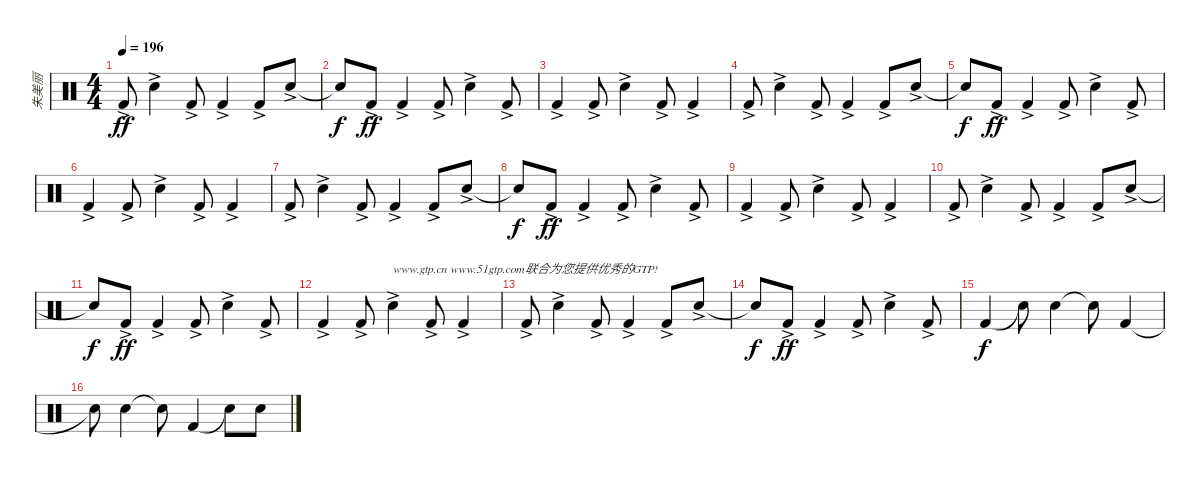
\track ("朱美丽" "朱美丽") {instrument percussion}
\staff {score}
\articulation defaults
\ts (4 4)
\tempo 196
\clef neutral
\ks c "Kick (hit) 2"{ac}.8{dy ff} "Electric Snare (hit)"{ac}.4 "Kick (hit) 2"{ac}.8 "Kick (hit) 2"{ac}.4 "Kick (hit) 2"{ac}.8 "Electric Snare (hit)"{ac}.8
|
"Snare (hit)"{t}.8{dy f} "Kick (hit) 2"{ac}.8{dy ff} "Kick (hit) 2"{ac}.4 "Kick (hit) 2"{ac}.8 "Electric Snare (hit)"{ac}.4 "Kick (hit) 2"{ac}.8 |
"Kick (hit) 2"{ac}.4 "Kick (hit) 2"{ac}.8 "Electric Snare (hit)"{ac}.4 "Kick (hit) 2"{ac}.8 "Kick (hit) 2"{ac}.4 |
"Kick (hit) 2"{ac}.8 "Electric Snare (hit)"{ac}.4 "Kick (hit) 2"{ac}.8 "Kick (hit) 2"{ac}.4 "Kick (hit) 2"{ac}.8 "Electric Snare (hit)"{ac}.8 |
"Snare (hit)"{t}.8{dy f} "Kick (hit) 2"{ac}.8{dy ff} "Kick (hit) 2"{ac}.4 "Kick (hit) 2"{ac}.8 "Electric Snare (hit)"{ac}.4 "Kick (hit) 2"{ac}.8 |
"Kick (hit) 2"{ac}.4 "Kick (hit) 2"{ac}.8 "Electric Snare (hit)"{ac}.4 "Kick (hit) 2"{ac}.8 "Kick (hit) 2"{ac}.4 |
"Kick (hit) 2"{ac}.8 "Electric Snare (hit)"{ac}.4 "Kick (hit) 2"{ac}.8 "Kick (hit) 2"{ac}.4 "Kick (hit) 2"{ac}.8 "Electric Snare (hit)"{ac}.8 |
"Snare (hit)"{t}.8{dy f} "Kick (hit) 2"{ac}.8{dy ff} "Kick (hit) 2"{ac}.4 "Kick (hit) 2"{ac}.8 "Electric Snare (hit)"{ac}.4 "Kick (hit) 2"{ac}.8 |
"Kick (hit) 2"{ac}.4 "Kick (hit) 2"{ac}.8 "Electric Snare (hit)"{ac}.4 "Kick (hit) 2"{ac}.8 "Kick (hit) 2"{ac}.4 |
"Kick (hit) 2"{ac}.8 "Electric Snare (hit)"{ac}.4 "Kick (hit) 2"{ac}.8 "Kick (hit) 2"{ac}.4 "Kick (hit) 2"{ac}.8 "Electric Snare (hit)"{ac}.8 |
"Snare (hit)"{t}.8{dy f} "Kick (hit) 2"{ac}.8{dy ff} "Kick (hit) 2"{ac}.4 "Kick (hit) 2"{ac}.8 "Electric Snare (hit)"{ac}.4 "Kick (hit) 2"{ac}.8 |
"Kick (hit) 2"{ac}.4 "Kick (hit) 2"{ac}.8 "Electric Snare (hit)"{ac}.4{txt "www.gtp.cn www.51gtp.com联合为您提供优秀的GTP!"} "Kick (hit) 2"{ac}.8 "Kick (hit) 2"{ac}.4 |
"Kick (hit) 2"{ac}.8 "Electric Snare (hit)"{ac}.4 "Kick (hit) 2"{ac}.8 "Kick (hit) 2"{ac}.4 "Kick (hit) 2"{ac}.8 "Electric Snare (hit)"{ac}.8 |
"Snare (hit)"{t}.8{dy f} "Kick (hit) 2"{ac}.8{dy ff} "Kick (hit) 2"{ac}.4 "Kick (hit) 2"{ac}.8 "Electric Snare (hit)"{ac}.4 "Kick (hit) 2"{ac}.8 |
"Kick (hit) 2".4{dy f} "Snare (hit)"{t}.8 "Electric Snare (hit)".4 "Snare (hit)"{t}.8 "Kick (hit) 2".4 |
"Snare (hit)"{t}.8 "Electric Snare (hit)".4 "Snare (hit)"{t}.8 "Kick (hit) 2".4 "Snare (hit)"{t}.8 "Electric Snare (hit)".8
